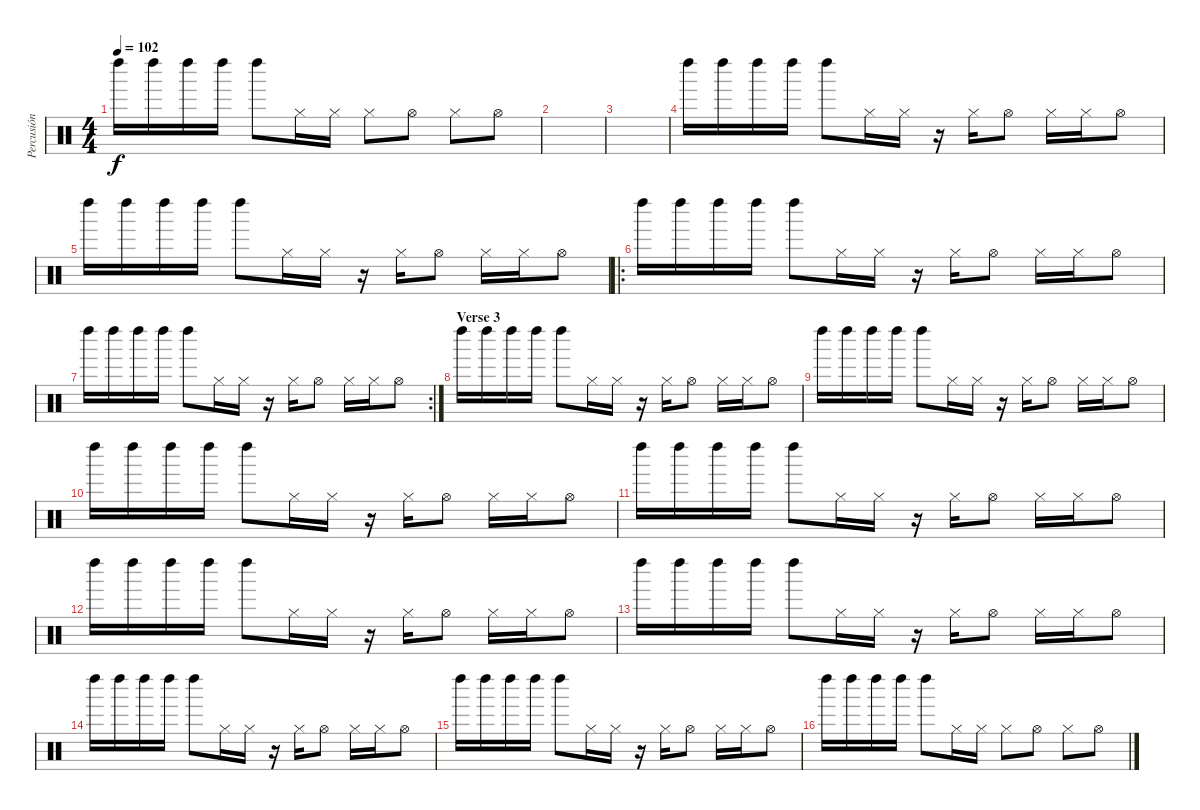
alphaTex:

\track ("Percusión" "Percusión") {instrument percussion}
\staff {score}
\articulation defaults
\ts (4 4)
\tempo 102
\clef neutral
\ks c "Left Maraca (hit)".16{dy f} "Left Maraca (hit)".16 "Left Maraca (hit)".16 "Left Maraca (hit)".16 "Left Maraca (hit)".8 "Hi-Hat (closed)".16 "Hi-Hat (closed)".16 "Hi-Hat (closed)".8 "Hi-Hat (open)".8 "Hi-Hat (closed)".8 "Hi-Hat (open)".8
|
|
|
"Left Maraca (hit)".16 "Left Maraca (hit)".16 "Left Maraca (hit)".16 "Left Maraca (hit)".16 "Left Maraca (hit)".8 "Hi-Hat (closed)".16 "Hi-Hat (closed)".16 r.16 "Hi-Hat (closed)".16 "Hi-Hat (open)".8 "Hi-Hat (closed)".16 "Hi-Hat (closed)".16 "Hi-Hat (open)".8 |
"Left Maraca (hit)".16 "Left Maraca (hit)".16 "Left Maraca (hit)".16 "Left Maraca (hit)".16 "Left Maraca (hit)".8 "Hi-Hat (closed)".16 "Hi-Hat (closed)".16 r.16 "Hi-Hat (closed)".16 "Hi-Hat (open)".8 "Hi-Hat (closed)".16 "Hi-Hat (closed)".16 "Hi-Hat (open)".8 |
\ro "Left Maraca (hit)".16 "Left Maraca (hit)".16 "Left Maraca (hit)".16 "Left Maraca (hit)".16 "Left Maraca (hit)".8 "Hi-Hat (closed)".16 "Hi-Hat (closed)".16
r.16 "Hi-Hat (closed)".16 "Hi-Hat (open)".8 "Hi-Hat (closed)".16 "Hi-Hat (closed)".16 "Hi-Hat (open)".8 |
\rc 2 "Left Maraca (hit)".16 "Left Maraca (hit)".16 "Left Maraca (hit)".16 "Left Maraca (hit)".16 "Left Maraca (hit)".8 "Hi-Hat (closed)".16 "Hi-Hat (closed)".16
r.16 "Hi-Hat (closed)".16 "Hi-Hat (open)".8 "Hi-Hat (closed)".16 "Hi-Hat (closed)".16 "Hi-Hat (open)".8 |
\section ("" "Verse 3")
"Left Maraca (hit)".16 "Left Maraca (hit)".16 "Left Maraca (hit)".16 "Left Maraca (hit)".16 "Left Maraca (hit)".8 "Hi-Hat (closed)".16 "Hi-Hat (closed)".16 r.16 "Hi-Hat (closed)".16 "Hi-Hat (open)".8 "Hi-Hat (closed)".16 "Hi-Hat (closed)".16 "Hi-Hat (open)".8 |
"Left Maraca (hit)".16 "Left Maraca (hit)".16 "Left Maraca (hit)".16 "Left Maraca (hit)".16 "Left Maraca (hit)".8 "Hi-Hat (closed)".16 "Hi-Hat (closed)".16 r.16 "Hi-Hat (closed)".16 "Hi-Hat (open)".8 "Hi-Hat (closed)".16 "Hi-Hat (closed)".16 "Hi-Hat (open)".8 |
"Left Maraca (hit)".16 "Left Maraca (hit)".16 "Left Maraca (hit)".16 "Left Maraca (hit)".16 "Left Maraca (hit)".8 "Hi-Hat (closed)".16 "Hi-Hat (closed)".16 r.16 "Hi-Hat (closed)".16 "Hi-Hat (open)".8 "Hi-Hat (closed)".16 "Hi-Hat (closed)".16 "Hi-Hat (open)".8 |
"Left Maraca (hit)".16 "Left Maraca (hit)".16 "Left Maraca (hit)".16 "Left Maraca (hit)".16 "Left Maraca (hit)".8 "Hi-Hat (closed)".16 "Hi-Hat (closed)".16 r.16 "Hi-Hat (closed)".16 "Hi-Hat (open)".8 "Hi-Hat (closed)".16 "Hi-Hat (closed)".16 "Hi-Hat (open)".8 |
"Left Maraca (hit)".16 "Left Maraca (hit)".16 "Left Maraca (hit)".16 "Left Maraca (hit)".16 "Left Maraca (hit)".8 "Hi-Hat (closed)".16 "Hi-Hat (closed)".16 r.16 "Hi-Hat (closed)".16 "Hi-Hat (open)".8 "Hi-Hat (closed)".16 "Hi-Hat (closed)".16 "Hi-Hat (open)".8 |
"Left Maraca (hit)".16 "Left Maraca (hit)".16 "Left Maraca (hit)".16 "Left Maraca (hit)".16 "Left Maraca (hit)".8 "Hi-Hat (closed)".16 "Hi-Hat (closed)".16 r.16 "Hi-Hat (closed)".16 "Hi-Hat (open)".8 "Hi-Hat (closed)".16 "Hi-Hat (closed)".16 "Hi-Hat (open)".8 |
"Left Maraca (hit)".16 "Left Maraca (hit)".16 "Left Maraca (hit)".16 "Left Maraca (hit)".16 "Left Maraca (hit)".8 "Hi-Hat (closed)".16 "Hi-Hat (closed)".16 r.16 "Hi-Hat (closed)".16 "Hi-Hat (open)".8 "Hi-Hat (closed)".16 "Hi-Hat (closed)".16 "Hi-Hat (open)".8 |
"Left Maraca (hit)".16 "Left Maraca (hit)".16 "Left Maraca (hit)".16 "Left Maraca (hit)".16 "Left Maraca (hit)".8 "Hi-Hat (closed)".16 "Hi-Hat (closed)".16 r.16 "Hi-Hat (closed)".16 "Hi-Hat (open)".8 "Hi-Hat (closed)".16 "Hi-Hat (closed)".16 "Hi-Hat (open)".8 |
"Left Maraca (hit)".16 "Left Maraca (hit)".16 "Left Maraca (hit)".16 "Left Maraca (hit)".16 "Left Maraca (hit)".8 "Hi-Hat (closed)".16 "Hi-Hat (closed)".16 "Hi-Hat (closed)".8 "Hi-Hat (open)".8 "Hi-Hat (closed)".8 "Hi-Hat (open)".8
